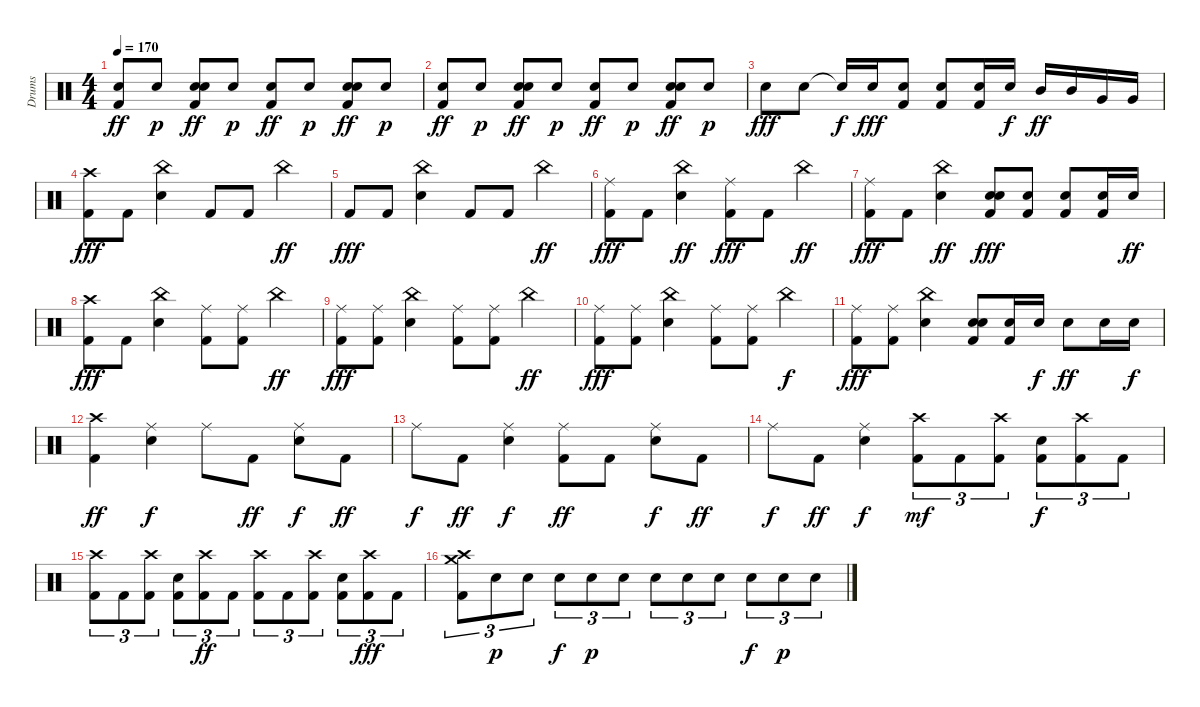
\track ("Drums" "Drums") {instrument percussion}
\staff {score}
\articulation defaults
\ts (4 4)
\tempo 170
\clef neutral
\ks c
("Snare (hit) 2" "Kick (hit) 2").8{dy ff} "Snare (hit) 2".8{dy p} ("Snare (hit) 2" "Snare (hit) 2" "Kick (hit) 2").8{dy ff} "Snare (hit) 2".8{dy p} ("Snare (hit) 2" "Kick (hit) 2").8{dy ff} "Snare (hit) 2".8{dy p} ("Snare (hit) 2" "Snare (hit) 2" "Kick (hit) 2").8{dy ff} "Snare (hit) 2".8{dy p} |
("Snare (hit) 2" "Kick (hit) 2").8{dy ff} "Snare (hit) 2".8{dy p} ("Snare (hit) 2" "Snare (hit) 2" "Kick (hit) 2").8{dy ff} "Snare (hit) 2".8{dy p} ("Snare (hit) 2" "Kick (hit) 2").8{dy ff} "Snare (hit) 2".8{dy p} ("Snare (hit) 2" "Snare (hit) 2" "Kick (hit) 2").8{dy ff} "Snare (hit) 2".8{dy p} |
"Snare (hit) 2".8{dy fff} "Snare (hit) 2".8 "Snare (hit)"{t}.16{dy f} "Snare (hit) 2".16{dy fff} ("Kick (hit) 2" "Snare (hit) 2").8 ("Kick (hit) 2" "Snare (hit) 2").8 ("Snare (hit) 2" "Kick (hit) 2").16 "Snare (hit) 2".16{dy f} "Mid Tom (hit)".16{dy ff} "Mid Tom (hit)".16 "Very Low Tom (hit)".16 "Very Low Tom (hit)".16 |
("Crash high (hit)" "Kick (hit) 2").8{dy fff} "Kick (hit) 2".8 ("China (hit)" "Snare (hit) 2").4 "Kick (hit) 2".8 "Kick (hit) 2".8 "China (hit)".4{dy ff} |
"Kick (hit) 2".8{dy fff} "Kick (hit) 2".8 ("China (hit)" "Snare (hit) 2").4 "Kick (hit) 2".8 "Kick (hit) 2".8 "China (hit)".4{dy ff} |
("Kick (hit) 2" "Ride (middle)").8{dy fff} "Kick (hit) 2".8 ("Snare (hit) 2" "China (hit)").4{dy ff} ("Kick (hit) 2" "Ride (middle)").8{dy fff} "Kick (hit) 2".8 "China (hit)".4{dy ff} |
("Kick (hit) 2" "Ride (middle)").8{dy fff} "Kick (hit) 2".8 ("Snare (hit) 2" "China (hit)").4{dy ff} ("Snare (hit) 2" "Snare (hit) 2" "Kick (hit) 2").8{dy fff} ("Snare (hit) 2" "Kick (hit) 2").8 ("Snare (hit) 2" "Kick (hit) 2").8 ("Snare (hit) 2" "Kick (hit) 2").16 "Snare (hit) 2".16{dy ff} |
("Crash high (hit)" "Kick (hit) 2").8{dy fff} "Kick (hit) 2".8 ("China (hit)" "Snare (hit) 2").4 ("Ride (middle)" "Kick (hit) 2").8 ("Ride (middle)" "Kick (hit) 2").8 "China (hit)".4{dy ff} |
("Ride (middle)" "Kick (hit) 2").8{dy fff} ("Ride (middle)" "Kick (hit) 2").8 ("China (hit)" "Snare (hit) 2").4 ("Ride (middle)" "Kick (hit) 2").8 ("Ride (middle)" "Kick (hit) 2").8 "China (hit)".4{dy ff} |
("Kick (hit) 2" "Ride (middle)").8{dy fff} ("Kick (hit) 2" "Ride (middle)").8 ("Snare (hit) 2" "China (hit)").4 ("Kick (hit) 2" "Ride (middle)").8 ("Kick (hit) 2" "Ride (middle)").8 "China (hit)".4{dy f} |
("Ride (middle)" "Kick (hit) 2").8{dy fff} ("Ride (middle)" "Kick (hit) 2").8 ("China (hit)" "Snare (hit) 2").4 ("Snare (hit) 2" "Snare (hit) 2" "Kick (hit) 2").8 ("Snare (hit) 2" "Kick (hit) 2").16 "Snare (hit) 2".16{dy f} "Snare (hit) 2".8{dy ff} "Snare (hit) 2".16 "Snare (hit) 2".16{dy f} |
("Kick (hit) 2" "Crash high (hit)").4{dy ff} ("Snare (hit) 2" "Ride (middle)").4{dy f} "Ride (middle)".8 "Kick (hit) 2".8{dy ff} ("Snare (hit) 2" "Ride (middle)").8{dy f} "Kick (hit) 2".8{dy ff} |
"Ride (middle)".8{dy f} "Kick (hit) 2".8{dy ff} ("Snare (hit) 2" "Ride (middle)").4{dy f} ("Kick (hit) 2" "Ride (middle)").8{dy ff} "Kick (hit) 2".8 ("Snare (hit) 2" "Ride (middle)").8{dy f} "Kick (hit) 2".8{dy ff} |
"Ride (middle)".8{dy f} "Kick (hit) 2".8{dy ff} ("Ride (middle)" "Snare (hit) 2").4{dy f} ("Crash high (hit)" "Kick (hit) 2").8{tu (3 2) dy mf} "Kick (hit) 2".8{tu (3 2)} ("Crash high (hit)" "Kick (hit) 2").8{tu (3 2)} ("Kick (hit) 2" "Snare (hit) 2").8{tu (3 2) dy f} ("Crash high (hit)" "Kick (hit) 2").8{tu (3 2)} "Kick (hit) 2".8{tu (3 2)} |
("Crash high (hit)" "Kick (hit) 2").8{tu (3 2)} "Kick (hit) 2".8{tu (3 2)} ("Crash high (hit)" "Kick (hit) 2").8{tu (3 2)} ("Kick (hit) 2" "Snare (hit) 2").8{tu (3 2)} ("Crash high (hit)" "Kick (hit) 2").8{tu (3 2) dy ff} "Kick (hit) 2".8{tu (3 2)} ("Crash high (hit)" "Kick (hit) 2").8{tu (3 2)} "Kick (hit) 2".8{tu (3 2)} ("Crash high (hit)" "Kick (hit) 2").8{tu (3 2)} ("Kick (hit) 2" "Snare (hit) 2").8{tu (3 2)} ("Crash high (hit)" "Kick (hit) 2").8{tu (3 2) dy fff} "Kick (hit) 2".8{tu (3 2)} |
("Crash high (hit)" "Crash medium (hit)" "Kick (hit) 2").8{tu (3 2)} "Snare (hit) 2".8{tu (3 2) dy p} "Snare (hit) 2".8{tu (3 2)} "Snare (hit) 2".8{tu (3 2) dy f} "Snare (hit) 2".8{tu (3 2) dy p} "Snare (hit) 2".8{tu (3 2)} "Snare (hit) 2".8{tu (3 2)} "Snare (hit) 2".8{tu (3 2)} "Snare (hit) 2".8{tu (3 2)} "Snare (hit) 2".8{tu (3 2) dy f} "Snare (hit) 2".8{tu (3 2) dy p} "Snare (hit) 2".8{tu (3 2)}
